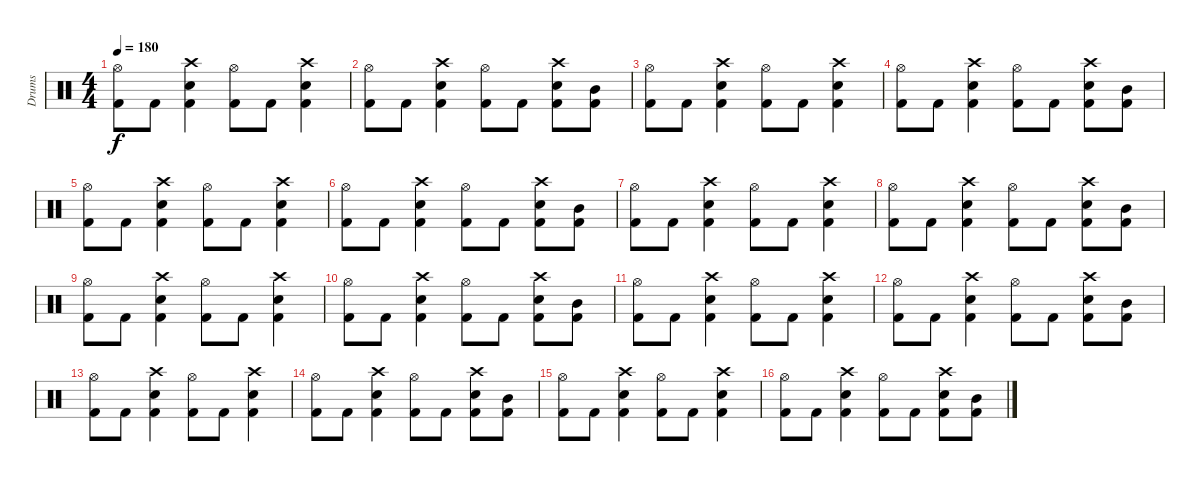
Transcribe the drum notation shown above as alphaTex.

\track ("Drums" "Drums") {instrument percussion}
\staff {score}
\articulation defaults
\ts (4 4)
\tempo 180
\clef neutral
\ks c
("Hi-Hat (open)" "Kick (hit) 2").8{dy f} "Kick (hit) 2".8 ("Electric Snare (hit)" "Crash high (hit)" "Kick (hit) 2").4 ("Hi-Hat (open)" "Kick (hit) 2").8 "Kick (hit) 2".8 ("Electric Snare (hit)" "Crash high (hit)" "Kick (hit) 2").4 |
("Hi-Hat (open)" "Kick (hit) 2").8 "Kick (hit) 2".8 ("Electric Snare (hit)" "Crash high (hit)" "Kick (hit) 2").4 ("Hi-Hat (open)" "Kick (hit) 2").8 "Kick (hit) 2".8 ("Electric Snare (hit)" "Crash high (hit)" "Kick (hit) 2").8 ("Mid Tom (hit)" "Kick (hit) 2").8 |
("Hi-Hat (open)" "Kick (hit) 2").8 "Kick (hit) 2".8 ("Electric Snare (hit)" "Crash high (hit)" "Kick (hit) 2").4 ("Hi-Hat (open)" "Kick (hit) 2").8 "Kick (hit) 2".8 ("Electric Snare (hit)" "Crash high (hit)" "Kick (hit) 2").4 |
("Hi-Hat (open)" "Kick (hit) 2").8 "Kick (hit) 2".8 ("Electric Snare (hit)" "Crash high (hit)" "Kick (hit) 2").4 ("Hi-Hat (open)" "Kick (hit) 2").8 "Kick (hit) 2".8 ("Electric Snare (hit)" "Crash high (hit)" "Kick (hit) 2").8 ("Mid Tom (hit)" "Kick (hit) 2").8 |
("Hi-Hat (open)" "Kick (hit) 2").8 "Kick (hit) 2".8 ("Electric Snare (hit)" "Crash high (hit)" "Kick (hit) 2").4 ("Hi-Hat (open)" "Kick (hit) 2").8 "Kick (hit) 2".8 ("Electric Snare (hit)" "Crash high (hit)" "Kick (hit) 2").4 |
("Hi-Hat (open)" "Kick (hit) 2").8 "Kick (hit) 2".8 ("Electric Snare (hit)" "Crash high (hit)" "Kick (hit) 2").4 ("Hi-Hat (open)" "Kick (hit) 2").8 "Kick (hit) 2".8 ("Electric Snare (hit)" "Crash high (hit)" "Kick (hit) 2").8 ("Mid Tom (hit)" "Kick (hit) 2").8 |
("Hi-Hat (open)" "Kick (hit) 2").8 "Kick (hit) 2".8 ("Electric Snare (hit)" "Crash high (hit)" "Kick (hit) 2").4 ("Hi-Hat (open)" "Kick (hit) 2").8 "Kick (hit) 2".8 ("Electric Snare (hit)" "Crash high (hit)" "Kick (hit) 2").4 |
("Hi-Hat (open)" "Kick (hit) 2").8 "Kick (hit) 2".8 ("Electric Snare (hit)" "Crash high (hit)" "Kick (hit) 2").4 ("Hi-Hat (open)" "Kick (hit) 2").8 "Kick (hit) 2".8 ("Electric Snare (hit)" "Crash high (hit)" "Kick (hit) 2").8 ("Mid Tom (hit)" "Kick (hit) 2").8 |
("Hi-Hat (open)" "Kick (hit) 2").8 "Kick (hit) 2".8 ("Electric Snare (hit)" "Crash high (hit)" "Kick (hit) 2").4 ("Hi-Hat (open)" "Kick (hit) 2").8 "Kick (hit) 2".8 ("Electric Snare (hit)" "Crash high (hit)" "Kick (hit) 2").4 |
("Hi-Hat (open)" "Kick (hit) 2").8 "Kick (hit) 2".8 ("Electric Snare (hit)" "Crash high (hit)" "Kick (hit) 2").4 ("Hi-Hat (open)" "Kick (hit) 2").8 "Kick (hit) 2".8 ("Electric Snare (hit)" "Crash high (hit)" "Kick (hit) 2").8 ("Mid Tom (hit)" "Kick (hit) 2").8 |
("Hi-Hat (open)" "Kick (hit) 2").8 "Kick (hit) 2".8 ("Electric Snare (hit)" "Crash high (hit)" "Kick (hit) 2").4 ("Hi-Hat (open)" "Kick (hit) 2").8 "Kick (hit) 2".8 ("Electric Snare (hit)" "Crash high (hit)" "Kick (hit) 2").4 |
("Hi-Hat (open)" "Kick (hit) 2").8 "Kick (hit) 2".8 ("Electric Snare (hit)" "Crash high (hit)" "Kick (hit) 2").4 ("Hi-Hat (open)" "Kick (hit) 2").8 "Kick (hit) 2".8 ("Electric Snare (hit)" "Crash high (hit)" "Kick (hit) 2").8 ("Mid Tom (hit)" "Kick (hit) 2").8 |
("Hi-Hat (open)" "Kick (hit) 2").8 "Kick (hit) 2".8 ("Electric Snare (hit)" "Crash high (hit)" "Kick (hit) 2").4 ("Hi-Hat (open)" "Kick (hit) 2").8 "Kick (hit) 2".8 ("Electric Snare (hit)" "Crash high (hit)" "Kick (hit) 2").4 |
("Hi-Hat (open)" "Kick (hit) 2").8 "Kick (hit) 2".8 ("Electric Snare (hit)" "Crash high (hit)" "Kick (hit) 2").4 ("Hi-Hat (open)" "Kick (hit) 2").8 "Kick (hit) 2".8 ("Electric Snare (hit)" "Crash high (hit)" "Kick (hit) 2").8 ("Mid Tom (hit)" "Kick (hit) 2").8 |
("Hi-Hat (open)" "Kick (hit) 2").8 "Kick (hit) 2".8 ("Electric Snare (hit)" "Crash high (hit)" "Kick (hit) 2").4 ("Hi-Hat (open)" "Kick (hit) 2").8 "Kick (hit) 2".8 ("Electric Snare (hit)" "Crash high (hit)" "Kick (hit) 2").4 |
("Hi-Hat (open)" "Kick (hit) 2").8 "Kick (hit) 2".8 ("Electric Snare (hit)" "Crash high (hit)" "Kick (hit) 2").4 ("Hi-Hat (open)" "Kick (hit) 2").8 "Kick (hit) 2".8 ("Electric Snare (hit)" "Crash high (hit)" "Kick (hit) 2").8 ("Mid Tom (hit)" "Kick (hit) 2").8
